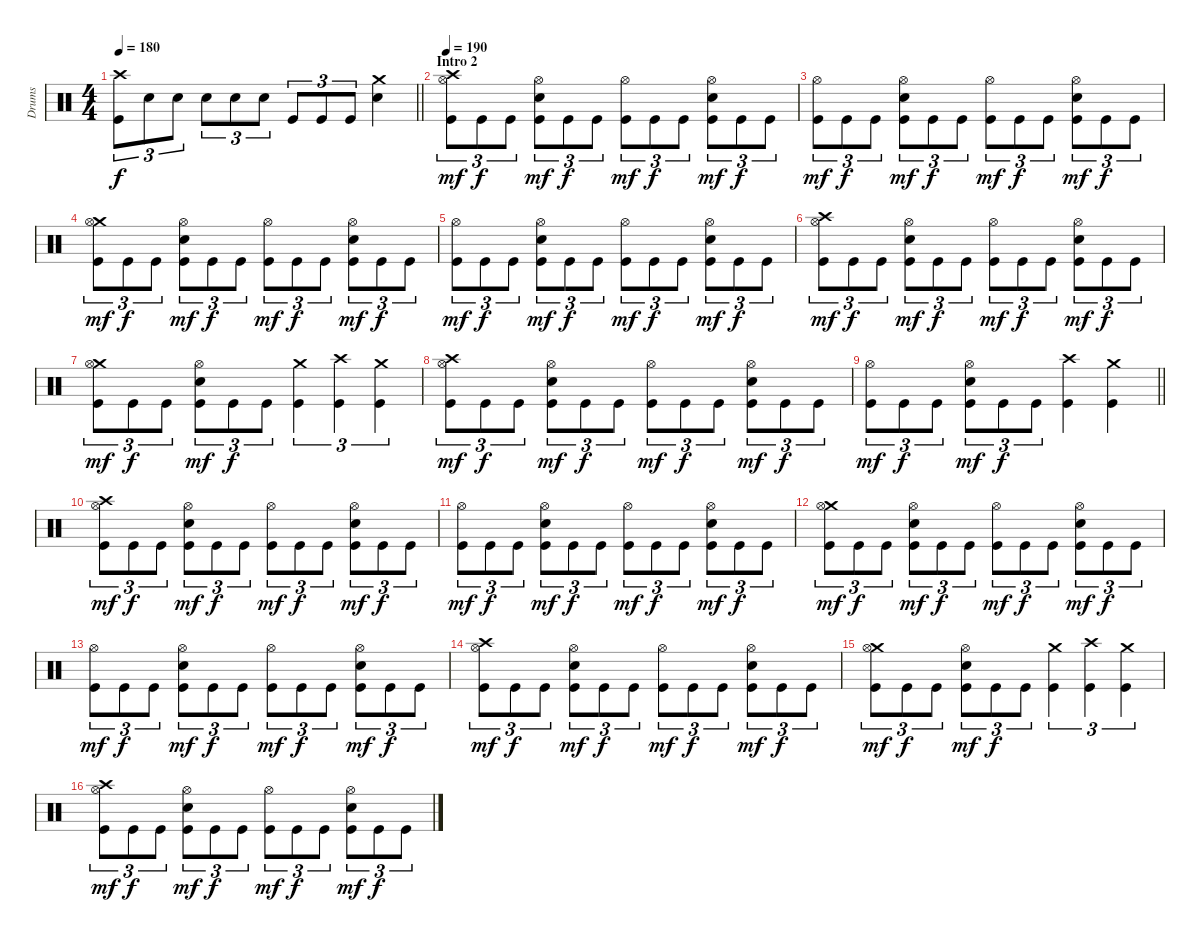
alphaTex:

\track ("Drums" "Drums") {instrument percussion}
\staff {score}
\articulation defaults
\ts (4 4)
\tempo 180
\clef neutral
\barLineRight lightlight
\ks c
("Crash high (hit)" "Kick (hit)").8{tu (3 2) dy f} "Electric Snare (hit)".8{tu (3 2)} "Electric Snare (hit)".8{tu (3 2)} "Electric Snare (hit)".8{tu (3 2)} "Electric Snare (hit)".8{tu (3 2)} "Electric Snare (hit)".8{tu (3 2)} "Kick (hit)".8{tu (3 2)} "Kick (hit)".8{tu (3 2)} "Kick (hit)".8{tu (3 2)} ("Crash medium (hit)" "Electric Snare (hit)").4 |
\section ("" "Intro 2")
\tempo 190
("Crash high (hit)" "Hi-Hat (open)" "Kick (hit)").8{tu (3 2) dy mf} "Kick (hit)".8{tu (3 2) dy f} "Kick (hit)".8{tu (3 2)} ("Hi-Hat (open)" "Electric Snare (hit)" "Kick (hit)").8{tu (3 2) dy mf} "Kick (hit)".8{tu (3 2) dy f} "Kick (hit)".8{tu (3 2)} ("Hi-Hat (open)" "Kick (hit)").8{tu (3 2) dy mf} "Kick (hit)".8{tu (3 2) dy f} "Kick (hit)".8{tu (3 2)} ("Hi-Hat (open)" "Electric Snare (hit)" "Kick (hit)").8{tu (3 2) dy mf} "Kick (hit)".8{tu (3 2) dy f} "Kick (hit)".8{tu (3 2)} |
("Hi-Hat (open)" "Kick (hit)").8{tu (3 2) dy mf} "Kick (hit)".8{tu (3 2) dy f} "Kick (hit)".8{tu (3 2)} ("Hi-Hat (open)" "Electric Snare (hit)" "Kick (hit)").8{tu (3 2) dy mf} "Kick (hit)".8{tu (3 2) dy f} "Kick (hit)".8{tu (3 2)} ("Hi-Hat (open)" "Kick (hit)").8{tu (3 2) dy mf} "Kick (hit)".8{tu (3 2) dy f} "Kick (hit)".8{tu (3 2)} ("Hi-Hat (open)" "Electric Snare (hit)" "Kick (hit)").8{tu (3 2) dy mf} "Kick (hit)".8{tu (3 2) dy f} "Kick (hit)".8{tu (3 2)} |
("Crash medium (hit)" "Hi-Hat (open)" "Kick (hit)").8{tu (3 2) dy mf} "Kick (hit)".8{tu (3 2) dy f} "Kick (hit)".8{tu (3 2)} ("Hi-Hat (open)" "Electric Snare (hit)" "Kick (hit)").8{tu (3 2) dy mf} "Kick (hit)".8{tu (3 2) dy f} "Kick (hit)".8{tu (3 2)} ("Hi-Hat (open)" "Kick (hit)").8{tu (3 2) dy mf} "Kick (hit)".8{tu (3 2) dy f} "Kick (hit)".8{tu (3 2)} ("Hi-Hat (open)" "Electric Snare (hit)" "Kick (hit)").8{tu (3 2) dy mf} "Kick (hit)".8{tu (3 2) dy f} "Kick (hit)".8{tu (3 2)} |
("Hi-Hat (open)" "Kick (hit)").8{tu (3 2) dy mf} "Kick (hit)".8{tu (3 2) dy f} "Kick (hit)".8{tu (3 2)} ("Hi-Hat (open)" "Electric Snare (hit)" "Kick (hit)").8{tu (3 2) dy mf} "Kick (hit)".8{tu (3 2) dy f} "Kick (hit)".8{tu (3 2)} ("Hi-Hat (open)" "Kick (hit)").8{tu (3 2) dy mf} "Kick (hit)".8{tu (3 2) dy f} "Kick (hit)".8{tu (3 2)} ("Hi-Hat (open)" "Electric Snare (hit)" "Kick (hit)").8{tu (3 2) dy mf} "Kick (hit)".8{tu (3 2) dy f} "Kick (hit)".8{tu (3 2)} |
("Crash high (hit)" "Hi-Hat (open)" "Kick (hit)").8{tu (3 2) dy mf} "Kick (hit)".8{tu (3 2) dy f} "Kick (hit)".8{tu (3 2)} ("Hi-Hat (open)" "Electric Snare (hit)" "Kick (hit)").8{tu (3 2) dy mf} "Kick (hit)".8{tu (3 2) dy f} "Kick (hit)".8{tu (3 2)} ("Hi-Hat (open)" "Kick (hit)").8{tu (3 2) dy mf} "Kick (hit)".8{tu (3 2) dy f} "Kick (hit)".8{tu (3 2)} ("Hi-Hat (open)" "Electric Snare (hit)" "Kick (hit)").8{tu (3 2) dy mf} "Kick (hit)".8{tu (3 2) dy f} "Kick (hit)".8{tu (3 2)} |
("Crash medium (hit)" "Hi-Hat (open)" "Kick (hit)").8{tu (3 2) dy mf} "Kick (hit)".8{tu (3 2) dy f} "Kick (hit)".8{tu (3 2)} ("Hi-Hat (open)" "Electric Snare (hit)" "Kick (hit)").8{tu (3 2) dy mf} "Kick (hit)".8{tu (3 2) dy f} "Kick (hit)".8{tu (3 2)} ("Crash medium (hit)" "Kick (hit)").4{tu (3 2)} ("Crash high (hit)" "Kick (hit)").4{tu (3 2)} ("Crash medium (hit)" "Kick (hit)").4{tu (3 2)} |
("Crash high (hit)" "Hi-Hat (open)" "Kick (hit)").8{tu (3 2) dy mf} "Kick (hit)".8{tu (3 2) dy f} "Kick (hit)".8{tu (3 2)} ("Hi-Hat (open)" "Electric Snare (hit)" "Kick (hit)").8{tu (3 2) dy mf} "Kick (hit)".8{tu (3 2) dy f} "Kick (hit)".8{tu (3 2)} ("Hi-Hat (open)" "Kick (hit)").8{tu (3 2) dy mf} "Kick (hit)".8{tu (3 2) dy f} "Kick (hit)".8{tu (3 2)} ("Hi-Hat (open)" "Electric Snare (hit)" "Kick (hit)").8{tu (3 2) dy mf} "Kick (hit)".8{tu (3 2) dy f} "Kick (hit)".8{tu (3 2)} |
\barLineRight lightlight
("Hi-Hat (open)" "Kick (hit)").8{tu (3 2) dy mf} "Kick (hit)".8{tu (3 2) dy f} "Kick (hit)".8{tu (3 2)} ("Hi-Hat (open)" "Electric Snare (hit)" "Kick (hit)").8{tu (3 2) dy mf} "Kick (hit)".8{tu (3 2) dy f} "Kick (hit)".8{tu (3 2)} ("Crash high (hit)" "Kick (hit)").4 ("Crash medium (hit)" "Kick (hit)").4 |
("Crash high (hit)" "Hi-Hat (open)" "Kick (hit)").8{tu (3 2) dy mf} "Kick (hit)".8{tu (3 2) dy f} "Kick (hit)".8{tu (3 2)} ("Hi-Hat (open)" "Electric Snare (hit)" "Kick (hit)").8{tu (3 2) dy mf} "Kick (hit)".8{tu (3 2) dy f} "Kick (hit)".8{tu (3 2)} ("Hi-Hat (open)" "Kick (hit)").8{tu (3 2) dy mf} "Kick (hit)".8{tu (3 2) dy f} "Kick (hit)".8{tu (3 2)} ("Hi-Hat (open)" "Electric Snare (hit)" "Kick (hit)").8{tu (3 2) dy mf} "Kick (hit)".8{tu (3 2) dy f} "Kick (hit)".8{tu (3 2)} |
("Hi-Hat (open)" "Kick (hit)").8{tu (3 2) dy mf} "Kick (hit)".8{tu (3 2) dy f} "Kick (hit)".8{tu (3 2)} ("Hi-Hat (open)" "Electric Snare (hit)" "Kick (hit)").8{tu (3 2) dy mf} "Kick (hit)".8{tu (3 2) dy f} "Kick (hit)".8{tu (3 2)} ("Hi-Hat (open)" "Kick (hit)").8{tu (3 2) dy mf} "Kick (hit)".8{tu (3 2) dy f} "Kick (hit)".8{tu (3 2)} ("Hi-Hat (open)" "Electric Snare (hit)" "Kick (hit)").8{tu (3 2) dy mf} "Kick (hit)".8{tu (3 2) dy f} "Kick (hit)".8{tu (3 2)} |
("Crash medium (hit)" "Hi-Hat (open)" "Kick (hit)").8{tu (3 2) dy mf} "Kick (hit)".8{tu (3 2) dy f} "Kick (hit)".8{tu (3 2)} ("Hi-Hat (open)" "Electric Snare (hit)" "Kick (hit)").8{tu (3 2) dy mf} "Kick (hit)".8{tu (3 2) dy f} "Kick (hit)".8{tu (3 2)} ("Hi-Hat (open)" "Kick (hit)").8{tu (3 2) dy mf} "Kick (hit)".8{tu (3 2) dy f} "Kick (hit)".8{tu (3 2)} ("Hi-Hat (open)" "Electric Snare (hit)" "Kick (hit)").8{tu (3 2) dy mf} "Kick (hit)".8{tu (3 2) dy f} "Kick (hit)".8{tu (3 2)} |
("Hi-Hat (open)" "Kick (hit)").8{tu (3 2) dy mf} "Kick (hit)".8{tu (3 2) dy f} "Kick (hit)".8{tu (3 2)} ("Hi-Hat (open)" "Electric Snare (hit)" "Kick (hit)").8{tu (3 2) dy mf} "Kick (hit)".8{tu (3 2) dy f} "Kick (hit)".8{tu (3 2)} ("Hi-Hat (open)" "Kick (hit)").8{tu (3 2) dy mf} "Kick (hit)".8{tu (3 2) dy f} "Kick (hit)".8{tu (3 2)} ("Hi-Hat (open)" "Electric Snare (hit)" "Kick (hit)").8{tu (3 2) dy mf} "Kick (hit)".8{tu (3 2) dy f} "Kick (hit)".8{tu (3 2)} |
("Crash high (hit)" "Hi-Hat (open)" "Kick (hit)").8{tu (3 2) dy mf} "Kick (hit)".8{tu (3 2) dy f} "Kick (hit)".8{tu (3 2)} ("Hi-Hat (open)" "Electric Snare (hit)" "Kick (hit)").8{tu (3 2) dy mf} "Kick (hit)".8{tu (3 2) dy f} "Kick (hit)".8{tu (3 2)} ("Hi-Hat (open)" "Kick (hit)").8{tu (3 2) dy mf} "Kick (hit)".8{tu (3 2) dy f} "Kick (hit)".8{tu (3 2)} ("Hi-Hat (open)" "Electric Snare (hit)" "Kick (hit)").8{tu (3 2) dy mf} "Kick (hit)".8{tu (3 2) dy f} "Kick (hit)".8{tu (3 2)} |
("Crash medium (hit)" "Hi-Hat (open)" "Kick (hit)").8{tu (3 2) dy mf} "Kick (hit)".8{tu (3 2) dy f} "Kick (hit)".8{tu (3 2)} ("Hi-Hat (open)" "Electric Snare (hit)" "Kick (hit)").8{tu (3 2) dy mf} "Kick (hit)".8{tu (3 2) dy f} "Kick (hit)".8{tu (3 2)} ("Crash medium (hit)" "Kick (hit)").4{tu (3 2)} ("Crash high (hit)" "Kick (hit)").4{tu (3 2)} ("Crash medium (hit)" "Kick (hit)").4{tu (3 2)} |
("Crash high (hit)" "Hi-Hat (open)" "Kick (hit)").8{tu (3 2) dy mf} "Kick (hit)".8{tu (3 2) dy f} "Kick (hit)".8{tu (3 2)} ("Hi-Hat (open)" "Electric Snare (hit)" "Kick (hit)").8{tu (3 2) dy mf} "Kick (hit)".8{tu (3 2) dy f} "Kick (hit)".8{tu (3 2)} ("Hi-Hat (open)" "Kick (hit)").8{tu (3 2) dy mf} "Kick (hit)".8{tu (3 2) dy f} "Kick (hit)".8{tu (3 2)} ("Hi-Hat (open)" "Electric Snare (hit)" "Kick (hit)").8{tu (3 2) dy mf} "Kick (hit)".8{tu (3 2) dy f} "Kick (hit)".8{tu (3 2)}
